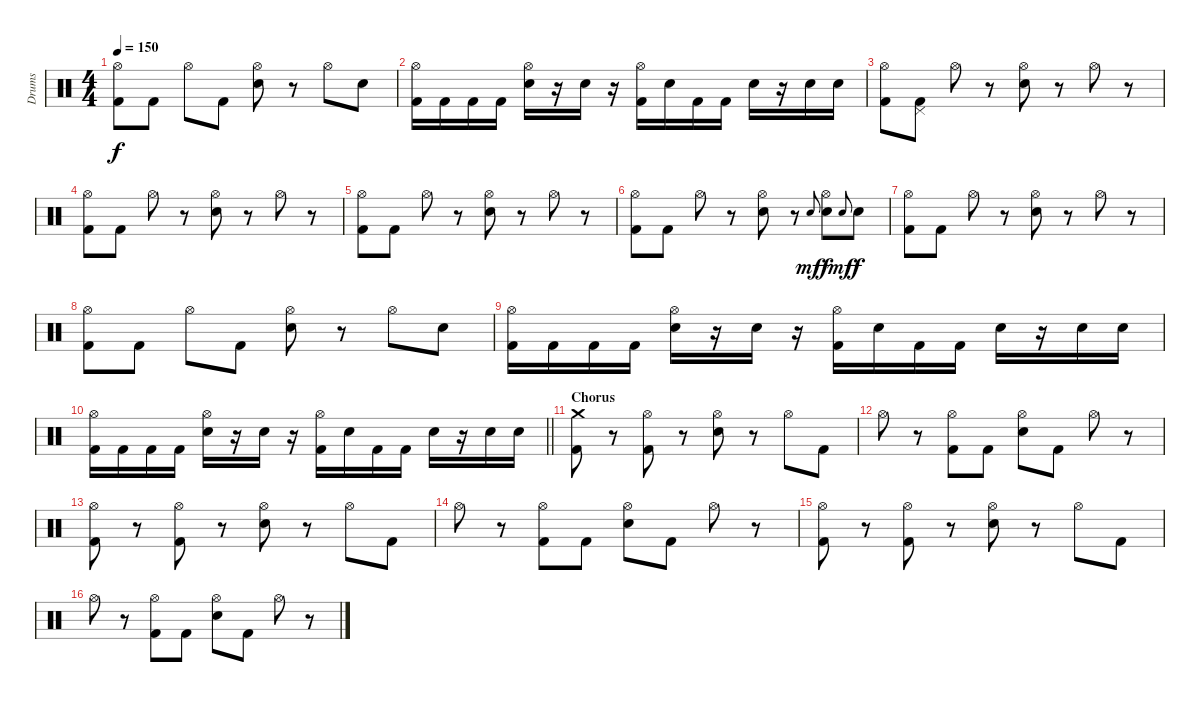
\track ("Drums" "Drums") {instrument percussion}
\staff {score}
\articulation defaults
\ts (4 4)
\tempo 150
\clef neutral
\ks c
("Hi-Hat (open)" "Kick (hit) 2").8{dy f} "Kick (hit) 2".8 "Hi-Hat (open)".8 "Kick (hit) 2".8 ("Hi-Hat (open)" "Snare (hit) 2").8 r.8 "Hi-Hat (open)".8 "Snare (hit) 2".8 |
("Hi-Hat (open)" "Kick (hit) 2").16 "Kick (hit) 2".16 "Kick (hit) 2".16 "Kick (hit) 2".16 ("Hi-Hat (open)" "Snare (hit) 2").16 r.16 "Snare (hit) 2".16 r.16 ("Hi-Hat (open)" "Kick (hit) 2").16 "Snare (hit) 2".16 "Kick (hit) 2".16 "Kick (hit) 2".16 "Snare (hit) 2".16 r.16 "Snare (hit) 2".16 "Snare (hit) 2".16 |
("Hi-Hat (open)" "Kick (hit) 2").8 ("Pedal Hi-Hat (hit)" "Kick (hit) 2").8 "Hi-Hat (open)".8 r.8 ("Hi-Hat (open)" "Snare (hit) 2").8 r.8 "Hi-Hat (open)".8 r.8 |
("Hi-Hat (open)" "Kick (hit) 2").8 "Kick (hit) 2".8 "Hi-Hat (open)".8 r.8 ("Hi-Hat (open)" "Snare (hit) 2").8 r.8 "Hi-Hat (open)".8 r.8 |
("Hi-Hat (open)" "Kick (hit) 2").8 "Kick (hit) 2".8 "Hi-Hat (open)".8 r.8 ("Hi-Hat (open)" "Snare (hit) 2").8 r.8 "Hi-Hat (open)".8 r.8 |
("Hi-Hat (open)" "Kick (hit) 2").8 "Kick (hit) 2".8 "Hi-Hat (open)".8 r.8 ("Hi-Hat (open)" "Snare (hit) 2").8 r.8 "Snare (hit)".8{gr onbeat dy mf} ("Hi-Hat (open)" "Snare (hit) 2").8{dy f} "Snare (hit)".8{gr onbeat dy mf} "Snare (hit) 2".8{dy f} |
("Hi-Hat (open)" "Kick (hit) 2").8 "Kick (hit) 2".8 "Hi-Hat (open)".8 r.8 ("Hi-Hat (open)" "Snare (hit) 2").8 r.8 "Hi-Hat (open)".8 r.8 |
("Hi-Hat (open)" "Kick (hit) 2").8 "Kick (hit) 2".8 "Hi-Hat (open)".8 "Kick (hit) 2".8 ("Hi-Hat (open)" "Snare (hit) 2").8 r.8 "Hi-Hat (open)".8 "Snare (hit) 2".8 |
("Hi-Hat (open)" "Kick (hit) 2").16 "Kick (hit) 2".16 "Kick (hit) 2".16 "Kick (hit) 2".16 ("Hi-Hat (open)" "Snare (hit) 2").16 r.16 "Snare (hit) 2".16 r.16 ("Hi-Hat (open)" "Kick (hit) 2").16 "Snare (hit) 2".16 "Kick (hit) 2".16 "Kick (hit) 2".16 "Snare (hit) 2".16 r.16 "Snare (hit) 2".16 "Snare (hit) 2".16 |
\barLineRight lightlight
("Hi-Hat (open)" "Kick (hit) 2").16 "Kick (hit) 2".16 "Kick (hit) 2".16 "Kick (hit) 2".16 ("Hi-Hat (open)" "Snare (hit) 2").16 r.16 "Snare (hit) 2".16 r.16 ("Hi-Hat (open)" "Kick (hit) 2").16 "Snare (hit) 2".16 "Kick (hit) 2".16 "Kick (hit) 2".16 "Snare (hit) 2".16 r.16 "Snare (hit) 2".16 "Snare (hit) 2".16 |
\section ("" "Chorus")
("Crash medium (hit)" "Kick (hit) 2").8 r.8 ("Hi-Hat (open)" "Kick (hit) 2").8 r.8 ("Hi-Hat (open)" "Snare (hit) 2").8 r.8 "Hi-Hat (open)".8 "Kick (hit) 2".8 |
"Hi-Hat (open)".8 r.8 ("Hi-Hat (open)" "Kick (hit) 2").8 "Kick (hit) 2".8 ("Hi-Hat (open)" "Snare (hit) 2").8 "Kick (hit) 2".8 "Hi-Hat (open)".8 r.8 |
("Hi-Hat (open)" "Kick (hit) 2").8 r.8 ("Hi-Hat (open)" "Kick (hit) 2").8 r.8 ("Hi-Hat (open)" "Snare (hit) 2").8 r.8 "Hi-Hat (open)".8 "Kick (hit) 2".8 |
"Hi-Hat (open)".8 r.8 ("Hi-Hat (open)" "Kick (hit) 2").8 "Kick (hit) 2".8 ("Hi-Hat (open)" "Snare (hit) 2").8 "Kick (hit) 2".8 "Hi-Hat (open)".8 r.8 |
("Hi-Hat (open)" "Kick (hit) 2").8 r.8 ("Hi-Hat (open)" "Kick (hit) 2").8 r.8 ("Hi-Hat (open)" "Snare (hit) 2").8 r.8 "Hi-Hat (open)".8 "Kick (hit) 2".8 |
"Hi-Hat (open)".8 r.8 ("Hi-Hat (open)" "Kick (hit) 2").8 "Kick (hit) 2".8 ("Hi-Hat (open)" "Snare (hit) 2").8 "Kick (hit) 2".8 "Hi-Hat (open)".8 r.8
